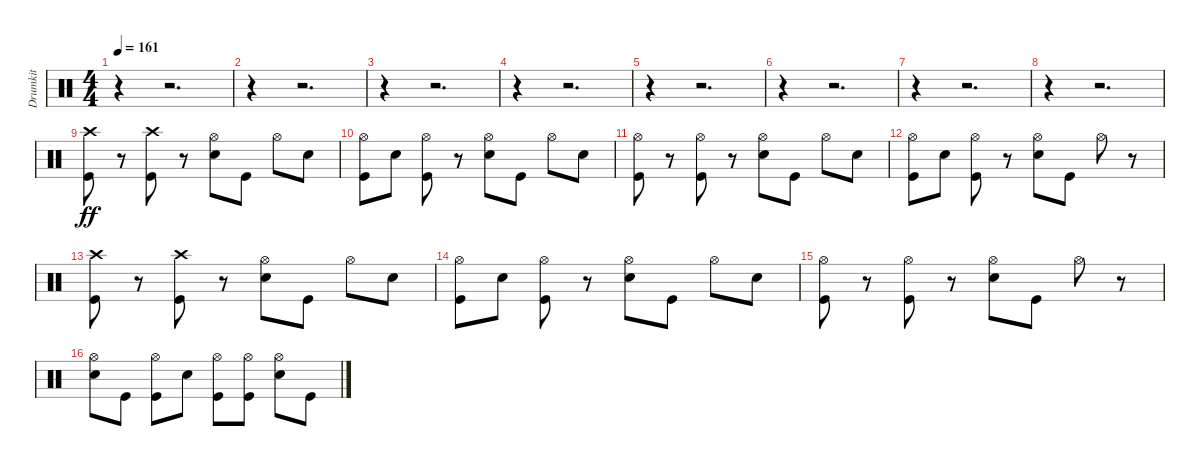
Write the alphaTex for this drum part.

\track ("Drumkit" "Drumkit") {instrument percussion}
\staff {score}
\articulation defaults
\ts (4 4)
\tempo 161
\clef neutral
\ks c
r.4{dy ff} r.2{d} |
r.4 r.2{d} |
r.4 r.2{d} |
r.4 r.2{d} |
r.4 r.2{d} |
r.4 r.2{d} |
r.4 r.2{d} |
r.4 r.2{d} |
("Kick (hit)" "Crash high (hit)").8 r.8 ("Kick (hit)" "Crash high (hit)").8 r.8 ("Hi-Hat (open)" "Snare (hit) 2").8 "Kick (hit)".8 "Hi-Hat (open)".8 "Snare (hit) 2".8 |
("Hi-Hat (open)" "Kick (hit)").8 "Snare (hit) 2".8 ("Hi-Hat (open)" "Kick (hit)").8 r.8 ("Hi-Hat (open)" "Snare (hit) 2").8 "Kick (hit)".8 "Hi-Hat (open)".8 "Snare (hit) 2".8 |
("Hi-Hat (open)" "Kick (hit)").8 r.8 ("Hi-Hat (open)" "Kick (hit)").8 r.8 ("Hi-Hat (open)" "Snare (hit) 2").8 "Kick (hit)".8 "Hi-Hat (open)".8 "Snare (hit) 2".8 |
("Hi-Hat (open)" "Kick (hit)").8 "Snare (hit) 2".8 ("Hi-Hat (open)" "Kick (hit)").8 r.8 ("Hi-Hat (open)" "Snare (hit) 2").8 "Kick (hit)".8 "Hi-Hat (open)".8 r.8 |
("Kick (hit)" "Crash high (hit)").8 r.8 ("Kick (hit)" "Crash high (hit)").8 r.8 ("Hi-Hat (open)" "Snare (hit) 2").8 "Kick (hit)".8 "Hi-Hat (open)".8 "Snare (hit) 2".8 |
("Hi-Hat (open)" "Kick (hit)").8 "Snare (hit) 2".8 ("Hi-Hat (open)" "Kick (hit)").8 r.8 ("Hi-Hat (open)" "Snare (hit) 2").8 "Kick (hit)".8 "Hi-Hat (open)".8 "Snare (hit) 2".8 |
("Hi-Hat (open)" "Kick (hit)").8 r.8 ("Hi-Hat (open)" "Kick (hit)").8 r.8 ("Hi-Hat (open)" "Snare (hit) 2").8 "Kick (hit)".8 "Hi-Hat (open)".8 r.8 |
("Hi-Hat (open)" "Snare (hit) 2").8 "Kick (hit)".8 ("Hi-Hat (open)" "Kick (hit)").8 "Snare (hit) 2".8 ("Hi-Hat (open)" "Kick (hit)").8 ("Kick (hit)" "Hi-Hat (open)").8 ("Hi-Hat (open)" "Snare (hit) 2").8 "Kick (hit)".8
